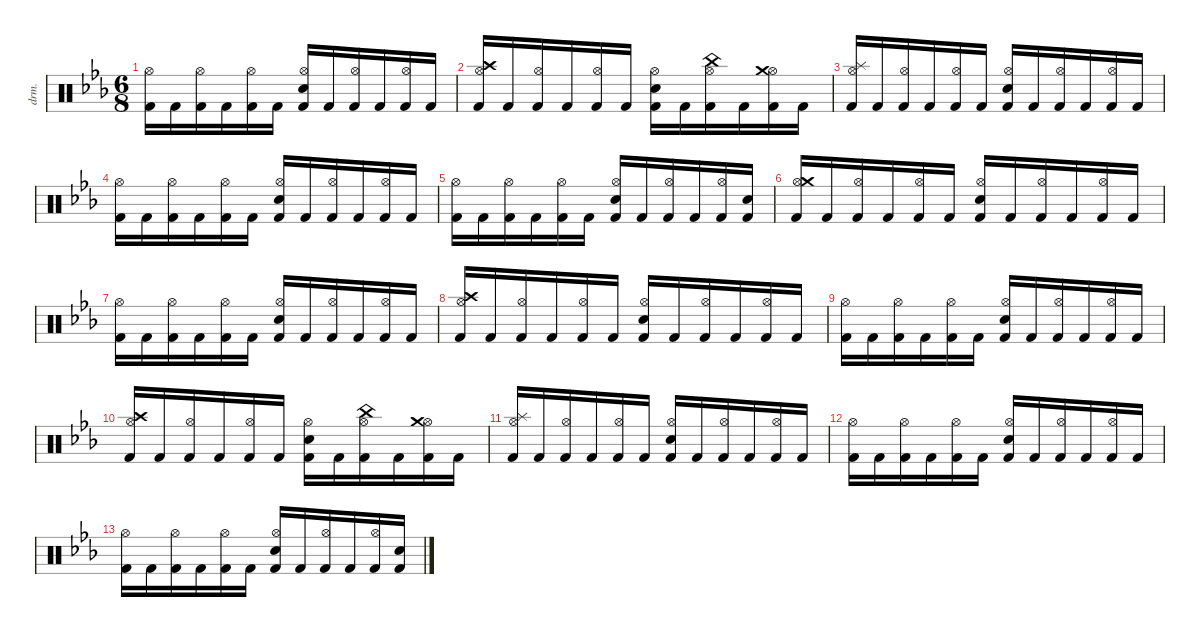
\defaultSystemsLayout 4
\hideDynamics
\bracketExtendMode nobrackets
\otherSystemsTrackNameOrientation horizontal
\track ("Drums" "drm.") {defaultSystemsLayout 4 instrument percussion}
\staff {score}
\articulation defaults
\ts (6 8)
\tempo (94.5 hide)
\clef neutral
\ks cminor
("Hi-Hat (open)"{acc forcenatural} "Kick (hit) 2"{acc forcenatural}).16{dy ff beam Down} "Kick (hit) 2"{acc forcenatural}.16{dy f beam Down} ("Hi-Hat (open)"{acc forcenatural} "Kick (hit) 2"{acc forcenatural}).16{dy ff beam Down} "Kick (hit) 2"{acc forcenatural}.16{dy f beam Down} ("Hi-Hat (open)"{acc forcenatural} "Kick (hit) 2"{acc forcenatural}).16{dy ff beam Down} "Kick (hit) 2"{acc forcenatural}.16{dy f beam Down} ("Hi-Hat (open)"{acc forcenatural} "Snare (hit) 2"{acc forcenatural} "Kick (hit) 2"{acc forcenatural}).16{dy ff beam Up} "Kick (hit) 2"{acc forcenatural}.16{dy f beam Up} ("Hi-Hat (open)"{acc forcenatural} "Kick (hit) 2"{acc forcenatural}).16{dy ff beam Up} "Kick (hit) 2"{acc forcenatural}.16{dy f beam Up} ("Hi-Hat (open)"{acc forcenatural} "Kick (hit) 2"{acc forcenatural}).16{dy ff beam Up} "Kick (hit) 2"{acc forcenatural}.16{dy f beam Up} |
("Hi-Hat (open)"{acc forcenatural} "Crash high (hit)"{acc forcenatural} "Kick (hit) 2"{acc forcenatural}).16{dy ff beam Up} "Kick (hit) 2"{acc forcenatural}.16{dy f beam Up} ("Hi-Hat (open)"{acc forcenatural} "Kick (hit) 2"{acc forcenatural}).16{dy ff beam Up} "Kick (hit) 2"{acc forcenatural}.16{dy f beam Up} ("Hi-Hat (open)"{acc forcenatural} "Kick (hit) 2"{acc forcenatural}).16{dy ff beam Up} "Kick (hit) 2"{acc forcenatural}.16{dy f beam Up} ("Hi-Hat (open)"{acc forcenatural} "Snare (hit) 2"{acc forcenatural} "Kick (hit) 2"{acc forcenatural}).16{dy ff beam Down} "Kick (hit) 2"{acc forcenatural}.16{dy f beam Down} ("Hi-Hat (open)"{acc forcenatural} "China (hit)"{acc forcenatural} "Kick (hit) 2"{acc forcenatural}).16{dy fff beam Down} "Kick (hit) 2"{acc forcenatural}.16{dy f beam Down} ("Hi-Hat (open)"{acc forcenatural} "Crash medium (hit)"{acc forcenatural} "Kick (hit) 2"{acc forcenatural}).16{dy ff beam Down} "Kick (hit) 2"{acc forcenatural}.16{dy f beam Down} |
("Hi-Hat (open)"{acc forcenatural} "Splash (hit)"{acc forcenatural} "Kick (hit) 2"{acc forcenatural}).16{dy ff beam Up} "Kick (hit) 2"{acc forcenatural}.16{dy f beam Up} ("Hi-Hat (open)"{acc forcenatural} "Kick (hit) 2"{acc forcenatural}).16{dy ff beam Up} "Kick (hit) 2"{acc forcenatural}.16{dy f beam Up} ("Hi-Hat (open)"{acc forcenatural} "Kick (hit) 2"{acc forcenatural}).16{dy ff beam Up} "Kick (hit) 2"{acc forcenatural}.16{dy f beam Up} ("Hi-Hat (open)"{acc forcenatural} "Snare (hit) 2"{acc forcenatural} "Kick (hit) 2"{acc forcenatural}).16{dy ff beam Up} "Kick (hit) 2"{acc forcenatural}.16{dy f beam Up} ("Hi-Hat (open)"{acc forcenatural} "Kick (hit) 2"{acc forcenatural}).16{dy ff beam Up} "Kick (hit) 2"{acc forcenatural}.16{dy f beam Up} ("Hi-Hat (open)"{acc forcenatural} "Kick (hit) 2"{acc forcenatural}).16{dy ff beam Up} "Kick (hit) 2"{acc forcenatural}.16{dy f beam Up} |
("Hi-Hat (open)"{acc forcenatural} "Kick (hit) 2"{acc forcenatural}).16{dy ff beam Down} "Kick (hit) 2"{acc forcenatural}.16{dy f beam Down} ("Hi-Hat (open)"{acc forcenatural} "Kick (hit) 2"{acc forcenatural}).16{dy ff beam Down} "Kick (hit) 2"{acc forcenatural}.16{dy f beam Down} ("Hi-Hat (open)"{acc forcenatural} "Kick (hit) 2"{acc forcenatural}).16{dy ff beam Down} "Kick (hit) 2"{acc forcenatural}.16{dy f beam Down} ("Hi-Hat (open)"{acc forcenatural} "Snare (hit) 2"{acc forcenatural} "Kick (hit) 2"{acc forcenatural}).16{dy ff beam Up} "Kick (hit) 2"{acc forcenatural}.16{dy f beam Up} ("Hi-Hat (open)"{acc forcenatural} "Kick (hit) 2"{acc forcenatural}).16{dy ff beam Up} "Kick (hit) 2"{acc forcenatural}.16{dy f beam Up} ("Hi-Hat (open)"{acc forcenatural} "Kick (hit) 2"{acc forcenatural}).16{dy ff beam Up} "Kick (hit) 2"{acc forcenatural}.16{dy f beam Up} |
("Hi-Hat (open)"{acc forcenatural} "Kick (hit) 2"{acc forcenatural}).16{dy ff beam Down} "Kick (hit) 2"{acc forcenatural}.16{dy f beam Down} ("Hi-Hat (open)"{acc forcenatural} "Kick (hit) 2"{acc forcenatural}).16{dy ff beam Down} "Kick (hit) 2"{acc forcenatural}.16{dy f beam Down} ("Hi-Hat (open)"{acc forcenatural} "Kick (hit) 2"{acc forcenatural}).16{dy ff beam Down} "Kick (hit) 2"{acc forcenatural}.16{dy f beam Down} ("Hi-Hat (open)"{acc forcenatural} "Snare (hit) 2"{acc forcenatural} "Kick (hit) 2"{acc forcenatural}).16{dy ff beam Up} "Kick (hit) 2"{acc forcenatural}.16{dy f beam Up} ("Hi-Hat (open)"{acc forcenatural} "Kick (hit) 2"{acc forcenatural}).16{dy ff beam Up} "Kick (hit) 2"{acc forcenatural}.16{dy f beam Up} ("Hi-Hat (open)"{acc forcenatural} "Kick (hit) 2"{acc forcenatural}).16{dy ff beam Up} ("Snare (hit) 2"{acc forcenatural} "Kick (hit) 2"{acc forcenatural}).16{dy fff beam Up} |
("Hi-Hat (open)"{acc forcenatural} "Crash medium (hit)"{acc forcenatural} "Kick (hit) 2"{acc forcenatural}).16{dy ff beam Up} "Kick (hit) 2"{acc forcenatural}.16{dy f beam Up} ("Hi-Hat (open)"{acc forcenatural} "Kick (hit) 2"{acc forcenatural}).16{dy ff beam Up} "Kick (hit) 2"{acc forcenatural}.16{dy f beam Up} ("Hi-Hat (open)"{acc forcenatural} "Kick (hit) 2"{acc forcenatural}).16{dy ff beam Up} "Kick (hit) 2"{acc forcenatural}.16{dy f beam Up} ("Hi-Hat (open)"{acc forcenatural} "Snare (hit) 2"{acc forcenatural} "Kick (hit) 2"{acc forcenatural}).16{dy ff beam Up} "Kick (hit) 2"{acc forcenatural}.16{dy f beam Up} ("Hi-Hat (open)"{acc forcenatural} "Kick (hit) 2"{acc forcenatural}).16{dy ff beam Up} "Kick (hit) 2"{acc forcenatural}.16{dy f beam Up} ("Hi-Hat (open)"{acc forcenatural} "Kick (hit) 2"{acc forcenatural}).16{dy ff beam Up} "Kick (hit) 2"{acc forcenatural}.16{dy f beam Up} |
("Hi-Hat (open)"{acc forcenatural} "Kick (hit) 2"{acc forcenatural}).16{dy ff beam Down} "Kick (hit) 2"{acc forcenatural}.16{dy f beam Down} ("Hi-Hat (open)"{acc forcenatural} "Kick (hit) 2"{acc forcenatural}).16{dy ff beam Down} "Kick (hit) 2"{acc forcenatural}.16{dy f beam Down} ("Hi-Hat (open)"{acc forcenatural} "Kick (hit) 2"{acc forcenatural}).16{dy ff beam Down} "Kick (hit) 2"{acc forcenatural}.16{dy f beam Down} ("Hi-Hat (open)"{acc forcenatural} "Snare (hit) 2"{acc forcenatural} "Kick (hit) 2"{acc forcenatural}).16{dy ff beam Up} "Kick (hit) 2"{acc forcenatural}.16{dy f beam Up} ("Hi-Hat (open)"{acc forcenatural} "Kick (hit) 2"{acc forcenatural}).16{dy ff beam Up} "Kick (hit) 2"{acc forcenatural}.16{dy f beam Up} ("Hi-Hat (open)"{acc forcenatural} "Kick (hit) 2"{acc forcenatural}).16{dy ff beam Up} "Kick (hit) 2"{acc forcenatural}.16{dy f beam Up} |
("Hi-Hat (open)"{acc forcenatural} "Crash high (hit)"{acc forcenatural} "Kick (hit) 2"{acc forcenatural}).16{dy ff beam Up} "Kick (hit) 2"{acc forcenatural}.16{dy f beam Up} ("Hi-Hat (open)"{acc forcenatural} "Kick (hit) 2"{acc forcenatural}).16{dy ff beam Up} "Kick (hit) 2"{acc forcenatural}.16{dy f beam Up} ("Hi-Hat (open)"{acc forcenatural} "Kick (hit) 2"{acc forcenatural}).16{dy ff beam Up} "Kick (hit) 2"{acc forcenatural}.16{dy f beam Up} ("Hi-Hat (open)"{acc forcenatural} "Snare (hit) 2"{acc forcenatural} "Kick (hit) 2"{acc forcenatural}).16{dy ff beam Up} "Kick (hit) 2"{acc forcenatural}.16{dy f beam Up} ("Hi-Hat (open)"{acc forcenatural} "Kick (hit) 2"{acc forcenatural}).16{dy ff beam Up} "Kick (hit) 2"{acc forcenatural}.16{dy f beam Up} ("Hi-Hat (open)"{acc forcenatural} "Kick (hit) 2"{acc forcenatural}).16{dy ff beam Up} "Kick (hit) 2"{acc forcenatural}.16{dy f beam Up} |
("Hi-Hat (open)"{acc forcenatural} "Kick (hit) 2"{acc forcenatural}).16{dy ff beam Down} "Kick (hit) 2"{acc forcenatural}.16{dy f beam Down} ("Hi-Hat (open)"{acc forcenatural} "Kick (hit) 2"{acc forcenatural}).16{dy ff beam Down} "Kick (hit) 2"{acc forcenatural}.16{dy f beam Down} ("Hi-Hat (open)"{acc forcenatural} "Kick (hit) 2"{acc forcenatural}).16{dy ff beam Down} "Kick (hit) 2"{acc forcenatural}.16{dy f beam Down} ("Hi-Hat (open)"{acc forcenatural} "Snare (hit) 2"{acc forcenatural} "Kick (hit) 2"{acc forcenatural}).16{dy ff beam Up} "Kick (hit) 2"{acc forcenatural}.16{dy f beam Up} ("Hi-Hat (open)"{acc forcenatural} "Kick (hit) 2"{acc forcenatural}).16{dy ff beam Up} "Kick (hit) 2"{acc forcenatural}.16{dy f beam Up} ("Hi-Hat (open)"{acc forcenatural} "Kick (hit) 2"{acc forcenatural}).16{dy ff beam Up} "Kick (hit) 2"{acc forcenatural}.16{dy f beam Up} |
("Hi-Hat (open)"{acc forcenatural} "Crash high (hit)"{acc forcenatural} "Kick (hit) 2"{acc forcenatural}).16{dy ff beam Up} "Kick (hit) 2"{acc forcenatural}.16{dy f beam Up} ("Hi-Hat (open)"{acc forcenatural} "Kick (hit) 2"{acc forcenatural}).16{dy ff beam Up} "Kick (hit) 2"{acc forcenatural}.16{dy f beam Up} ("Hi-Hat (open)"{acc forcenatural} "Kick (hit) 2"{acc forcenatural}).16{dy ff beam Up} "Kick (hit) 2"{acc forcenatural}.16{dy f beam Up} ("Hi-Hat (open)"{acc forcenatural} "Snare (hit) 2"{acc forcenatural} "Kick (hit) 2"{acc forcenatural}).16{dy ff beam Down} "Kick (hit) 2"{acc forcenatural}.16{dy f beam Down} ("Hi-Hat (open)"{acc forcenatural} "China (hit)"{acc forcenatural} "Kick (hit) 2"{acc forcenatural}).16{dy fff beam Down} "Kick (hit) 2"{acc forcenatural}.16{dy f beam Down} ("Hi-Hat (open)"{acc forcenatural} "Crash medium (hit)"{acc forcenatural} "Kick (hit) 2"{acc forcenatural}).16{dy ff beam Down} "Kick (hit) 2"{acc forcenatural}.16{dy f beam Down} |
("Hi-Hat (open)"{acc forcenatural} "Splash (hit)"{acc forcenatural} "Kick (hit) 2"{acc forcenatural}).16{dy ff beam Up} "Kick (hit) 2"{acc forcenatural}.16{dy f beam Up} ("Hi-Hat (open)"{acc forcenatural} "Kick (hit) 2"{acc forcenatural}).16{dy ff beam Up} "Kick (hit) 2"{acc forcenatural}.16{dy f beam Up} ("Hi-Hat (open)"{acc forcenatural} "Kick (hit) 2"{acc forcenatural}).16{dy ff beam Up} "Kick (hit) 2"{acc forcenatural}.16{dy f beam Up} ("Hi-Hat (open)"{acc forcenatural} "Snare (hit) 2"{acc forcenatural} "Kick (hit) 2"{acc forcenatural}).16{dy ff beam Up} "Kick (hit) 2"{acc forcenatural}.16{dy f beam Up} ("Hi-Hat (open)"{acc forcenatural} "Kick (hit) 2"{acc forcenatural}).16{dy ff beam Up} "Kick (hit) 2"{acc forcenatural}.16{dy f beam Up} ("Hi-Hat (open)"{acc forcenatural} "Kick (hit) 2"{acc forcenatural}).16{dy ff beam Up} "Kick (hit) 2"{acc forcenatural}.16{dy f beam Up} |
("Hi-Hat (open)"{acc forcenatural} "Kick (hit) 2"{acc forcenatural}).16{dy ff beam Down} "Kick (hit) 2"{acc forcenatural}.16{dy f beam Down} ("Hi-Hat (open)"{acc forcenatural} "Kick (hit) 2"{acc forcenatural}).16{dy ff beam Down} "Kick (hit) 2"{acc forcenatural}.16{dy f beam Down} ("Hi-Hat (open)"{acc forcenatural} "Kick (hit) 2"{acc forcenatural}).16{dy ff beam Down} "Kick (hit) 2"{acc forcenatural}.16{dy f beam Down} ("Hi-Hat (open)"{acc forcenatural} "Snare (hit) 2"{acc forcenatural} "Kick (hit) 2"{acc forcenatural}).16{dy ff beam Up} "Kick (hit) 2"{acc forcenatural}.16{dy f beam Up} ("Hi-Hat (open)"{acc forcenatural} "Kick (hit) 2"{acc forcenatural}).16{dy ff beam Up} "Kick (hit) 2"{acc forcenatural}.16{dy f beam Up} ("Hi-Hat (open)"{acc forcenatural} "Kick (hit) 2"{acc forcenatural}).16{dy ff beam Up} "Kick (hit) 2"{acc forcenatural}.16{dy f beam Up} |
("Hi-Hat (open)"{acc forcenatural} "Kick (hit) 2"{acc forcenatural}).16{dy ff beam Down} "Kick (hit) 2"{acc forcenatural}.16{dy f beam Down} ("Hi-Hat (open)"{acc forcenatural} "Kick (hit) 2"{acc forcenatural}).16{dy ff beam Down} "Kick (hit) 2"{acc forcenatural}.16{dy f beam Down} ("Hi-Hat (open)"{acc forcenatural} "Kick (hit) 2"{acc forcenatural}).16{dy ff beam Down} "Kick (hit) 2"{acc forcenatural}.16{dy f beam Down} ("Hi-Hat (open)"{acc forcenatural} "Snare (hit) 2"{acc forcenatural} "Kick (hit) 2"{acc forcenatural}).16{dy ff beam Up} "Kick (hit) 2"{acc forcenatural}.16{dy f beam Up} ("Hi-Hat (open)"{acc forcenatural} "Kick (hit) 2"{acc forcenatural}).16{dy ff beam Up} "Kick (hit) 2"{acc forcenatural}.16{dy f beam Up} ("Hi-Hat (open)"{acc forcenatural} "Kick (hit) 2"{acc forcenatural}).16{dy ff beam Up} ("Snare (hit) 2"{acc forcenatural} "Kick (hit) 2"{acc forcenatural}).16{dy fff beam Up}
